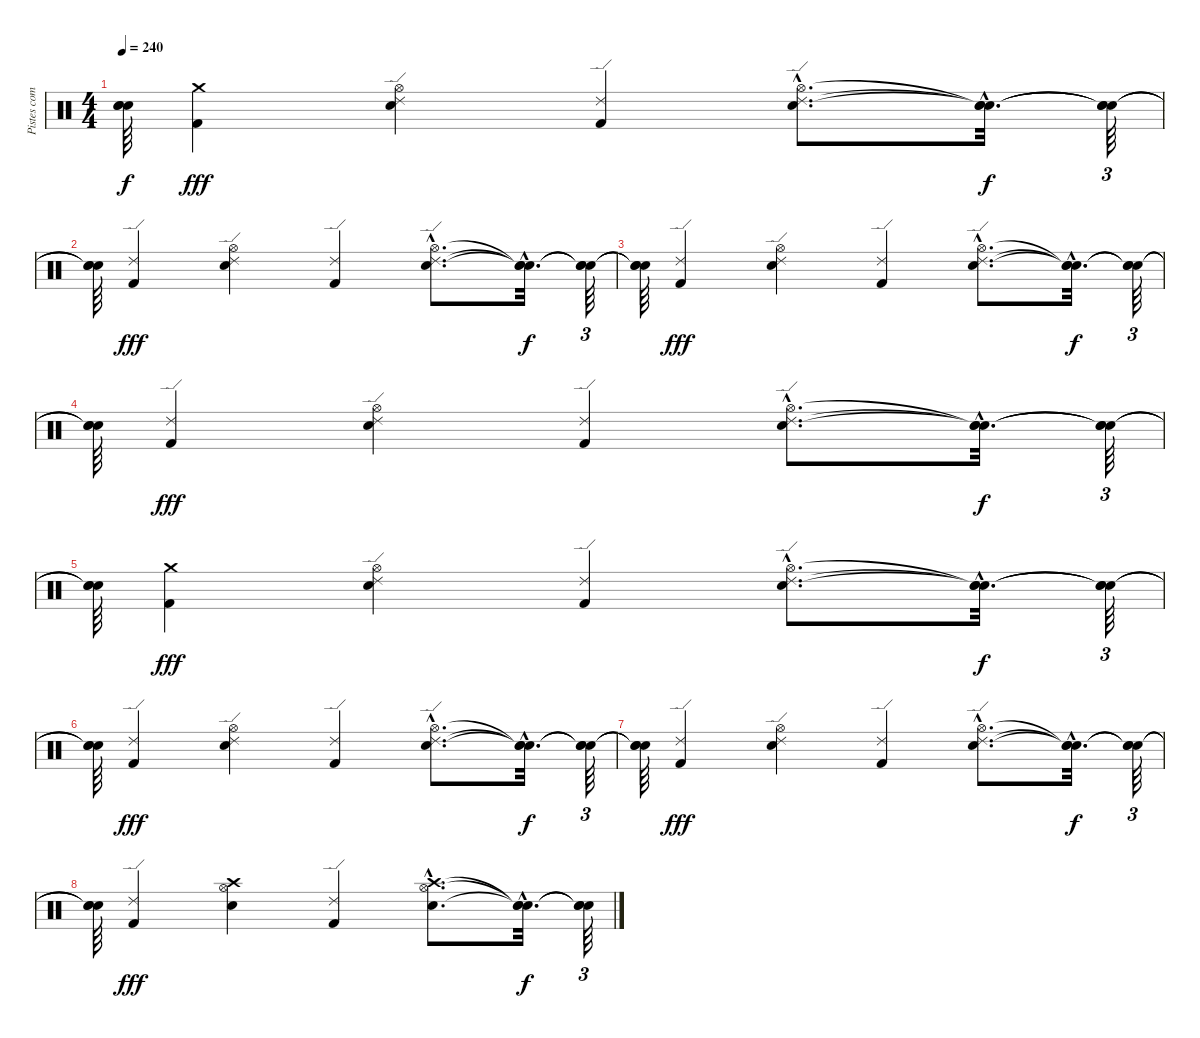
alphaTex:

\track ("Pistes combinées" "Pistes com") {instrument percussion}
\staff {score}
\articulation defaults
\ts (4 4)
\tempo 240
\clef neutral
\ks c
("Snare (hit)"{t} "Snare (hit)"{t} "Snare (hit)"{t}).64{dy f} ("Kick (hit) 2" "Crash medium (hit)").4{dy fff} ("Electric Snare (hit)" "Ride (edge) 2" "Hi-Hat (open)").4 ("Kick (hit) 2" "Ride (edge) 2").4 ("Electric Snare (hit)"{hac} "Ride (edge) 2"{hac} "Hi-Hat (open)"{hac}).8{d} ("Snare (hit)"{hac t} "Snare (hit)"{hac t} "Snare (hit)"{hac t}).32{d dy f} ("Snare (hit)"{t} "Snare (hit)"{t} "Snare (hit)"{t}).64{tu (3 2)} |
("Snare (hit)"{t} "Snare (hit)"{t} "Snare (hit)"{t}).64 ("Kick (hit) 2" "Ride (edge) 2").4{dy fff} ("Electric Snare (hit)" "Ride (edge) 2" "Hi-Hat (open)").4 ("Kick (hit) 2" "Ride (edge) 2").4 ("Electric Snare (hit)"{hac} "Ride (edge) 2"{hac} "Hi-Hat (open)"{hac}).8{d} ("Snare (hit)"{hac t} "Snare (hit)"{hac t} "Snare (hit)"{hac t}).32{d dy f} ("Snare (hit)"{t} "Snare (hit)"{t} "Snare (hit)"{t}).64{tu (3 2)} |
("Snare (hit)"{t} "Snare (hit)"{t} "Snare (hit)"{t}).64 ("Kick (hit) 2" "Ride (edge) 2").4{dy fff} ("Electric Snare (hit)" "Ride (edge) 2" "Hi-Hat (open)").4 ("Kick (hit) 2" "Ride (edge) 2").4 ("Electric Snare (hit)"{hac} "Ride (edge) 2"{hac} "Hi-Hat (open)"{hac}).8{d} ("Snare (hit)"{hac t} "Snare (hit)"{hac t} "Snare (hit)"{hac t}).32{d dy f} ("Snare (hit)"{t} "Snare (hit)"{t} "Snare (hit)"{t}).64{tu (3 2)} |
("Snare (hit)"{t} "Snare (hit)"{t} "Snare (hit)"{t}).64 ("Kick (hit) 2" "Ride (edge) 2").4{dy fff} ("Electric Snare (hit)" "Ride (edge) 2" "Hi-Hat (open)").4 ("Kick (hit) 2" "Ride (edge) 2").4 ("Electric Snare (hit)"{hac} "Ride (edge) 2"{hac} "Hi-Hat (open)"{hac}).8{d} ("Snare (hit)"{hac t} "Snare (hit)"{hac t} "Snare (hit)"{hac t}).32{d dy f} ("Snare (hit)"{t} "Snare (hit)"{t} "Snare (hit)"{t}).64{tu (3 2)} |
("Snare (hit)"{t} "Snare (hit)"{t} "Snare (hit)"{t}).64 ("Kick (hit) 2" "Crash medium (hit)").4{dy fff} ("Electric Snare (hit)" "Ride (edge) 2" "Hi-Hat (open)").4 ("Kick (hit) 2" "Ride (edge) 2").4 ("Electric Snare (hit)"{hac} "Ride (edge) 2"{hac} "Hi-Hat (open)"{hac}).8{d} ("Snare (hit)"{hac t} "Snare (hit)"{hac t} "Snare (hit)"{hac t}).32{d dy f} ("Snare (hit)"{t} "Snare (hit)"{t} "Snare (hit)"{t}).64{tu (3 2)} |
("Snare (hit)"{t} "Snare (hit)"{t} "Snare (hit)"{t}).64 ("Kick (hit) 2" "Ride (edge) 2").4{dy fff} ("Electric Snare (hit)" "Ride (edge) 2" "Hi-Hat (open)").4 ("Kick (hit) 2" "Ride (edge) 2").4 ("Electric Snare (hit)"{hac} "Ride (edge) 2"{hac} "Hi-Hat (open)"{hac}).8{d} ("Snare (hit)"{hac t} "Snare (hit)"{hac t} "Snare (hit)"{hac t}).32{d dy f} ("Snare (hit)"{t} "Snare (hit)"{t} "Snare (hit)"{t}).64{tu (3 2)} |
("Snare (hit)"{t} "Snare (hit)"{t} "Snare (hit)"{t}).64 ("Kick (hit) 2" "Ride (edge) 2").4{dy fff} ("Electric Snare (hit)" "Ride (edge) 2" "Hi-Hat (open)").4 ("Kick (hit) 2" "Ride (edge) 2").4 ("Electric Snare (hit)"{hac} "Ride (edge) 2"{hac} "Hi-Hat (open)"{hac}).8{d} ("Snare (hit)"{hac t} "Snare (hit)"{hac t} "Snare (hit)"{hac t}).32{d dy f} ("Snare (hit)"{t} "Snare (hit)"{t} "Snare (hit)"{t}).64{tu (3 2)} |
("Snare (hit)"{t} "Snare (hit)"{t} "Snare (hit)"{t}).64 ("Kick (hit) 2" "Ride (edge) 2").4{dy fff} ("Electric Snare (hit)" "Crash high (hit)" "Hi-Hat (open)").4 ("Kick (hit) 2" "Ride (edge) 2").4 ("Electric Snare (hit)"{hac} "Crash high (hit)"{hac} "Hi-Hat (open)"{hac}).8{d} ("Snare (hit)"{hac t} "Snare (hit)"{hac t} "Snare (hit)"{hac t}).32{d dy f} ("Snare (hit)"{t} "Snare (hit)"{t} "Snare (hit)"{t}).64{tu (3 2)}
